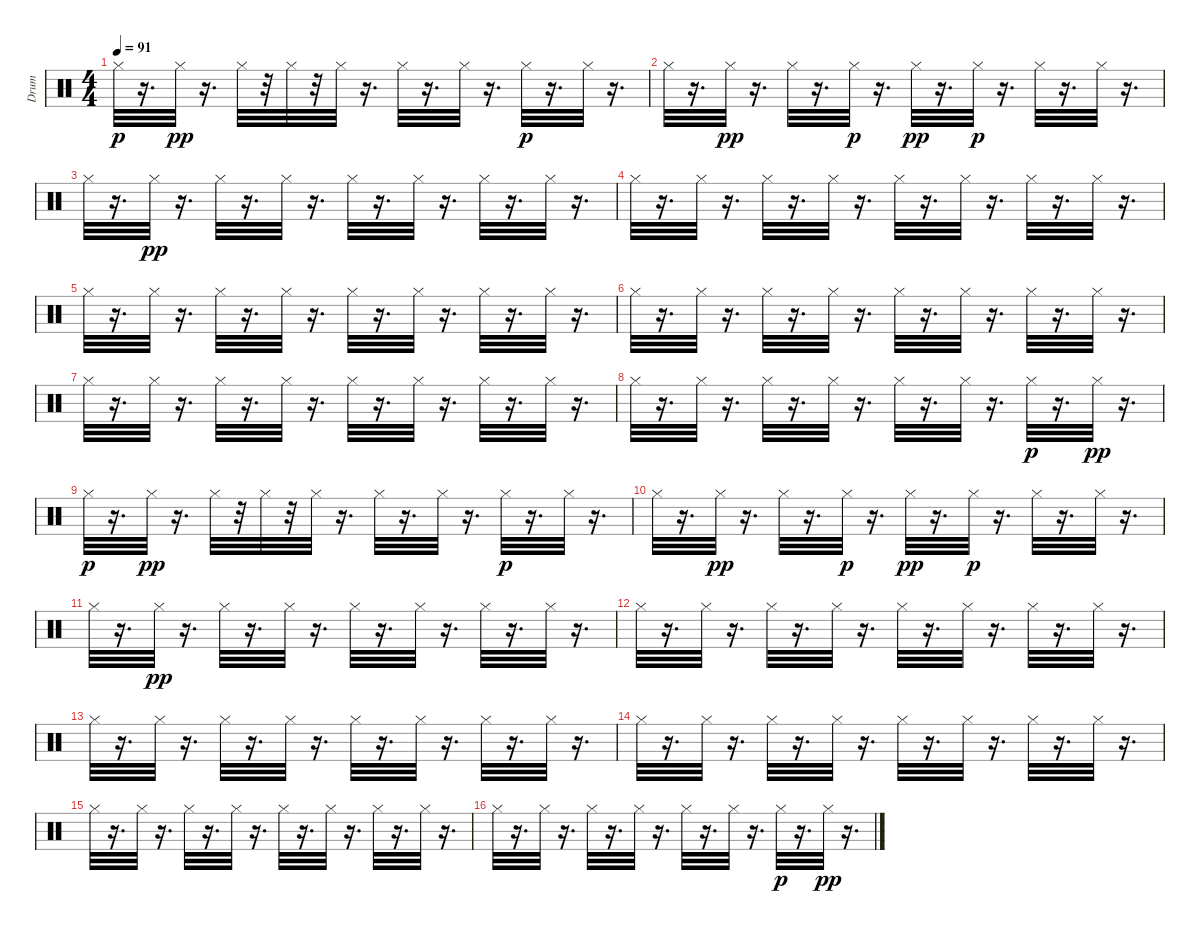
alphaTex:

\track ("Drum" "Drum") {instrument percussion}
\staff {score}
\articulation defaults
\ts (4 4)
\tempo 91
\clef neutral
\ks c "Hi-Hat (closed)".32{dy p}
r.16{d} "Hi-Hat (closed)".32{dy pp} r.16{d} "Hi-Hat (closed)".32 r.32 "Hi-Hat (closed)".32 r.32 "Hi-Hat (closed)".32 r.16{d} "Hi-Hat (closed)".32 r.16{d} "Hi-Hat (closed)".32 r.16{d} "Hi-Hat (closed)".32{dy p} r.16{d} "Hi-Hat (closed)".32 r.16{d} |
"Hi-Hat (closed)".32 r.16{d} "Hi-Hat (closed)".32{dy pp} r.16{d} "Hi-Hat (closed)".32 r.16{d} "Hi-Hat (closed)".32{dy p} r.16{d} "Hi-Hat (closed)".32{dy pp} r.16{d} "Hi-Hat (closed)".32{dy p} r.16{d} "Hi-Hat (closed)".32 r.16{d} "Hi-Hat (closed)".32 r.16{d} |
"Hi-Hat (closed)".32 r.16{d} "Hi-Hat (closed)".32{dy pp} r.16{d} "Hi-Hat (closed)".32 r.16{d} "Hi-Hat (closed)".32 r.16{d} "Hi-Hat (closed)".32 r.16{d} "Hi-Hat (closed)".32 r.16{d} "Hi-Hat (closed)".32 r.16{d} "Hi-Hat (closed)".32 r.16{d} |
"Hi-Hat (closed)".32 r.16{d} "Hi-Hat (closed)".32 r.16{d} "Hi-Hat (closed)".32 r.16{d} "Hi-Hat (closed)".32 r.16{d} "Hi-Hat (closed)".32 r.16{d} "Hi-Hat (closed)".32 r.16{d} "Hi-Hat (closed)".32 r.16{d} "Hi-Hat (closed)".32 r.16{d} |
"Hi-Hat (closed)".32 r.16{d} "Hi-Hat (closed)".32 r.16{d} "Hi-Hat (closed)".32 r.16{d} "Hi-Hat (closed)".32 r.16{d} "Hi-Hat (closed)".32 r.16{d} "Hi-Hat (closed)".32 r.16{d} "Hi-Hat (closed)".32 r.16{d} "Hi-Hat (closed)".32 r.16{d} |
"Hi-Hat (closed)".32 r.16{d} "Hi-Hat (closed)".32 r.16{d} "Hi-Hat (closed)".32 r.16{d} "Hi-Hat (closed)".32 r.16{d} "Hi-Hat (closed)".32 r.16{d} "Hi-Hat (closed)".32 r.16{d} "Hi-Hat (closed)".32 r.16{d} "Hi-Hat (closed)".32 r.16{d} |
"Hi-Hat (closed)".32 r.16{d} "Hi-Hat (closed)".32 r.16{d} "Hi-Hat (closed)".32 r.16{d} "Hi-Hat (closed)".32 r.16{d} "Hi-Hat (closed)".32 r.16{d} "Hi-Hat (closed)".32 r.16{d} "Hi-Hat (closed)".32 r.16{d} "Hi-Hat (closed)".32 r.16{d} |
"Hi-Hat (closed)".32 r.16{d} "Hi-Hat (closed)".32 r.16{d} "Hi-Hat (closed)".32 r.16{d} "Hi-Hat (closed)".32 r.16{d} "Hi-Hat (closed)".32 r.16{d} "Hi-Hat (closed)".32 r.16{d} "Hi-Hat (closed)".32{dy p} r.16{d} "Hi-Hat (closed)".32{dy pp} r.16{d} |
"Hi-Hat (closed)".32{dy p} r.16{d} "Hi-Hat (closed)".32{dy pp} r.16{d} "Hi-Hat (closed)".32 r.32 "Hi-Hat (closed)".32 r.32 "Hi-Hat (closed)".32 r.16{d} "Hi-Hat (closed)".32 r.16{d} "Hi-Hat (closed)".32 r.16{d} "Hi-Hat (closed)".32{dy p} r.16{d} "Hi-Hat (closed)".32 r.16{d} |
"Hi-Hat (closed)".32 r.16{d} "Hi-Hat (closed)".32{dy pp} r.16{d} "Hi-Hat (closed)".32 r.16{d} "Hi-Hat (closed)".32{dy p} r.16{d} "Hi-Hat (closed)".32{dy pp} r.16{d} "Hi-Hat (closed)".32{dy p} r.16{d} "Hi-Hat (closed)".32 r.16{d} "Hi-Hat (closed)".32 r.16{d} |
"Hi-Hat (closed)".32 r.16{d} "Hi-Hat (closed)".32{dy pp} r.16{d} "Hi-Hat (closed)".32 r.16{d} "Hi-Hat (closed)".32 r.16{d} "Hi-Hat (closed)".32 r.16{d} "Hi-Hat (closed)".32 r.16{d} "Hi-Hat (closed)".32 r.16{d} "Hi-Hat (closed)".32 r.16{d} |
"Hi-Hat (closed)".32 r.16{d} "Hi-Hat (closed)".32 r.16{d} "Hi-Hat (closed)".32 r.16{d} "Hi-Hat (closed)".32 r.16{d} "Hi-Hat (closed)".32 r.16{d} "Hi-Hat (closed)".32 r.16{d} "Hi-Hat (closed)".32 r.16{d} "Hi-Hat (closed)".32 r.16{d} |
"Hi-Hat (closed)".32 r.16{d} "Hi-Hat (closed)".32 r.16{d} "Hi-Hat (closed)".32 r.16{d} "Hi-Hat (closed)".32 r.16{d} "Hi-Hat (closed)".32 r.16{d} "Hi-Hat (closed)".32 r.16{d} "Hi-Hat (closed)".32 r.16{d} "Hi-Hat (closed)".32 r.16{d} |
"Hi-Hat (closed)".32 r.16{d} "Hi-Hat (closed)".32 r.16{d} "Hi-Hat (closed)".32 r.16{d} "Hi-Hat (closed)".32 r.16{d} "Hi-Hat (closed)".32 r.16{d} "Hi-Hat (closed)".32 r.16{d} "Hi-Hat (closed)".32 r.16{d} "Hi-Hat (closed)".32 r.16{d} |
"Hi-Hat (closed)".32 r.16{d} "Hi-Hat (closed)".32 r.16{d} "Hi-Hat (closed)".32 r.16{d} "Hi-Hat (closed)".32 r.16{d} "Hi-Hat (closed)".32 r.16{d} "Hi-Hat (closed)".32 r.16{d} "Hi-Hat (closed)".32 r.16{d} "Hi-Hat (closed)".32 r.16{d} |
"Hi-Hat (closed)".32 r.16{d} "Hi-Hat (closed)".32 r.16{d} "Hi-Hat (closed)".32 r.16{d} "Hi-Hat (closed)".32 r.16{d} "Hi-Hat (closed)".32 r.16{d} "Hi-Hat (closed)".32 r.16{d} "Hi-Hat (closed)".32{dy p} r.16{d} "Hi-Hat (closed)".32{dy pp} r.16{d}
